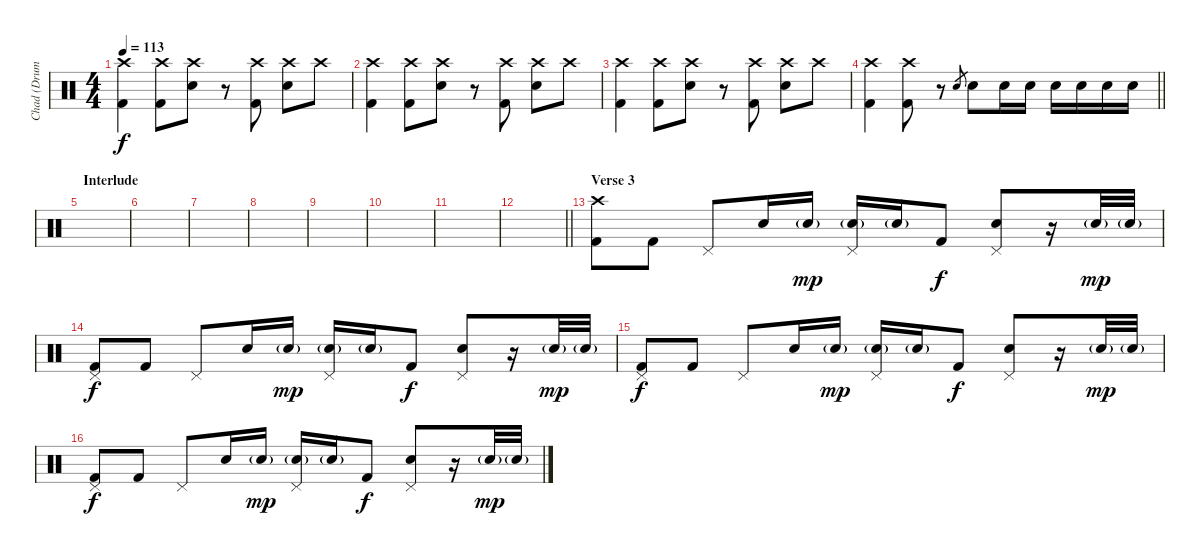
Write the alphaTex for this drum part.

\track ("Chad (Drums)" "Chad (Drum") {instrument percussion}
\staff {score}
\articulation defaults
\ts (4 4)
\tempo 113
\clef neutral
\ks c
("Crash high (hit)" "Kick (hit) 2").4{dy f} ("Crash high (hit)" "Kick (hit) 2").8 ("Crash high (hit)" "Snare (hit) 2").8 r.8 ("Crash high (hit)" "Kick (hit) 2").8 ("Crash high (hit)" "Snare (hit) 2").8 "Crash high (hit)".8 |
("Crash high (hit)" "Kick (hit) 2").4 ("Crash high (hit)" "Kick (hit) 2").8 ("Crash high (hit)" "Snare (hit) 2").8 r.8 ("Crash high (hit)" "Kick (hit) 2").8 ("Crash high (hit)" "Snare (hit) 2").8 "Crash high (hit)".8 |
("Crash high (hit)" "Kick (hit) 2").4 ("Crash high (hit)" "Kick (hit) 2").8 ("Crash high (hit)" "Snare (hit) 2").8 r.8 ("Crash high (hit)" "Kick (hit) 2").8 ("Crash high (hit)" "Snare (hit) 2").8 "Crash high (hit)".8 |
\barLineRight lightlight
("Crash high (hit)" "Kick (hit) 2").4 ("Crash high (hit)" "Kick (hit) 2").8 r.8 "Snare (hit) 2".8{gr} "Snare (hit) 2".8 "Snare (hit) 2".16 "Snare (hit) 2".16 "Snare (hit) 2".16 "Snare (hit) 2".16 "Snare (hit) 2".16 "Snare (hit) 2".16 |
\section ("" "Interlude")
|
|
|
|
|
|
|
\barLineRight lightlight
|
\section ("" "Verse 3")
("Crash high (hit)" "Kick (hit) 2").8 "Kick (hit) 2".8 "Pedal Hi-Hat (hit)".8 "Snare (hit) 2".16 "Snare (hit) 2"{g}.16{dy mp} ("Pedal Hi-Hat (hit)" "Snare (hit) 2"{g}).16 "Snare (hit) 2"{g}.16 "Kick (hit) 2".8{dy f} ("Pedal Hi-Hat (hit)" "Snare (hit) 2").8 r.16 "Snare (hit) 2"{g}.32{dy mp} "Snare (hit) 2"{g}.32 |
("Pedal Hi-Hat (hit)" "Kick (hit) 2").8{dy f} "Kick (hit) 2".8 "Pedal Hi-Hat (hit)".8 "Snare (hit) 2".16 "Snare (hit) 2"{g}.16{dy mp} ("Pedal Hi-Hat (hit)" "Snare (hit) 2"{g}).16 "Snare (hit) 2"{g}.16 "Kick (hit) 2".8{dy f} ("Pedal Hi-Hat (hit)" "Snare (hit) 2").8 r.16 "Snare (hit) 2"{g}.32{dy mp} "Snare (hit) 2"{g}.32 |
("Pedal Hi-Hat (hit)" "Kick (hit) 2").8{dy f} "Kick (hit) 2".8 "Pedal Hi-Hat (hit)".8 "Snare (hit) 2".16 "Snare (hit) 2"{g}.16{dy mp} ("Pedal Hi-Hat (hit)" "Snare (hit) 2"{g}).16 "Snare (hit) 2"{g}.16 "Kick (hit) 2".8{dy f} ("Pedal Hi-Hat (hit)" "Snare (hit) 2").8 r.16 "Snare (hit) 2"{g}.32{dy mp} "Snare (hit) 2"{g}.32 |
("Pedal Hi-Hat (hit)" "Kick (hit) 2").8{dy f} "Kick (hit) 2".8 "Pedal Hi-Hat (hit)".8 "Snare (hit) 2".16 "Snare (hit) 2"{g}.16{dy mp} ("Pedal Hi-Hat (hit)" "Snare (hit) 2"{g}).16 "Snare (hit) 2"{g}.16 "Kick (hit) 2".8{dy f} ("Pedal Hi-Hat (hit)" "Snare (hit) 2").8 r.16 "Snare (hit) 2"{g}.32{dy mp} "Snare (hit) 2"{g}.32
